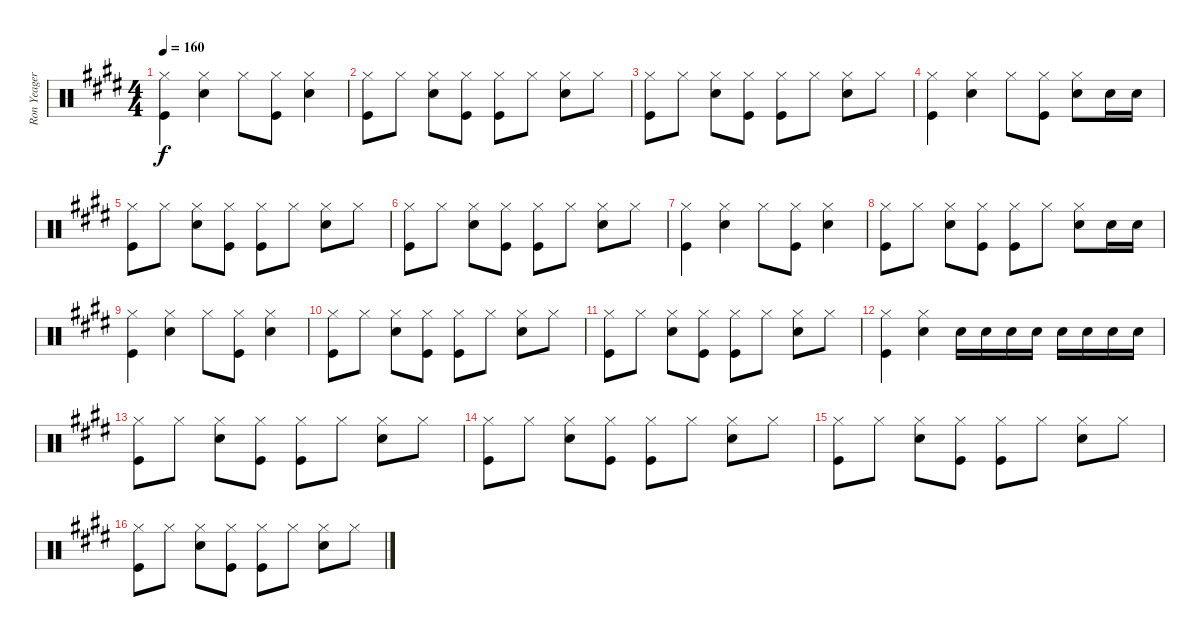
\track ("Ron Yeager Drums" "Ron Yeager") {instrument percussion}
\staff {score}
\articulation defaults
\ts (4 4)
\tempo 160
\clef neutral
\ks e
("Hi-Hat (closed)" "Kick (hit)").4{dy f} ("Hi-Hat (closed)" "Snare (hit) 2").4 "Hi-Hat (closed)".8 ("Hi-Hat (closed)" "Kick (hit)").8 ("Hi-Hat (closed)" "Snare (hit) 2").4 |
("Hi-Hat (closed)" "Kick (hit)").8 "Hi-Hat (closed)".8 ("Hi-Hat (closed)" "Snare (hit) 2").8 ("Hi-Hat (closed)" "Kick (hit)").8 ("Hi-Hat (closed)" "Kick (hit)").8 "Hi-Hat (closed)".8 ("Hi-Hat (closed)" "Snare (hit) 2").8 "Hi-Hat (closed)".8 |
("Hi-Hat (closed)" "Kick (hit)").8 "Hi-Hat (closed)".8 ("Hi-Hat (closed)" "Snare (hit) 2").8 ("Hi-Hat (closed)" "Kick (hit)").8 ("Hi-Hat (closed)" "Kick (hit)").8 "Hi-Hat (closed)".8 ("Hi-Hat (closed)" "Snare (hit) 2").8 "Hi-Hat (closed)".8 |
("Hi-Hat (closed)" "Kick (hit)").4 ("Hi-Hat (closed)" "Snare (hit) 2").4 "Hi-Hat (closed)".8 ("Hi-Hat (closed)" "Kick (hit)").8 ("Hi-Hat (closed)" "Snare (hit) 2").8 "Snare (hit) 2".16 "Snare (hit) 2".16 |
("Hi-Hat (closed)" "Kick (hit)").8 "Hi-Hat (closed)".8 ("Hi-Hat (closed)" "Snare (hit) 2").8 ("Hi-Hat (closed)" "Kick (hit)").8 ("Hi-Hat (closed)" "Kick (hit)").8 "Hi-Hat (closed)".8 ("Hi-Hat (closed)" "Snare (hit) 2").8 "Hi-Hat (closed)".8 |
("Hi-Hat (closed)" "Kick (hit)").8 "Hi-Hat (closed)".8 ("Hi-Hat (closed)" "Snare (hit) 2").8 ("Hi-Hat (closed)" "Kick (hit)").8 ("Hi-Hat (closed)" "Kick (hit)").8 "Hi-Hat (closed)".8 ("Hi-Hat (closed)" "Snare (hit) 2").8 "Hi-Hat (closed)".8 |
("Hi-Hat (closed)" "Kick (hit)").4 ("Hi-Hat (closed)" "Snare (hit) 2").4 "Hi-Hat (closed)".8 ("Hi-Hat (closed)" "Kick (hit)").8 ("Hi-Hat (closed)" "Snare (hit) 2").4 |
("Hi-Hat (closed)" "Kick (hit)").8 "Hi-Hat (closed)".8 ("Hi-Hat (closed)" "Snare (hit) 2").8 ("Hi-Hat (closed)" "Kick (hit)").8 ("Hi-Hat (closed)" "Kick (hit)").8 "Hi-Hat (closed)".8 ("Hi-Hat (closed)" "Snare (hit) 2").8 "Snare (hit) 2".16 "Snare (hit) 2".16 |
("Hi-Hat (closed)" "Kick (hit)").4 ("Hi-Hat (closed)" "Snare (hit) 2").4 "Hi-Hat (closed)".8 ("Hi-Hat (closed)" "Kick (hit)").8 ("Hi-Hat (closed)" "Snare (hit) 2").4 |
("Hi-Hat (closed)" "Kick (hit)").8 "Hi-Hat (closed)".8 ("Hi-Hat (closed)" "Snare (hit) 2").8 ("Hi-Hat (closed)" "Kick (hit)").8 ("Hi-Hat (closed)" "Kick (hit)").8 "Hi-Hat (closed)".8 ("Hi-Hat (closed)" "Snare (hit) 2").8 "Hi-Hat (closed)".8 |
("Hi-Hat (closed)" "Kick (hit)").8 "Hi-Hat (closed)".8 ("Hi-Hat (closed)" "Snare (hit) 2").8 ("Hi-Hat (closed)" "Kick (hit)").8 ("Hi-Hat (closed)" "Kick (hit)").8 "Hi-Hat (closed)".8 ("Hi-Hat (closed)" "Snare (hit) 2").8 "Hi-Hat (closed)".8 |
("Hi-Hat (closed)" "Kick (hit)").4 ("Hi-Hat (closed)" "Snare (hit) 2").4 "Snare (hit) 2".16 "Snare (hit) 2".16 "Snare (hit) 2".16 "Snare (hit) 2".16 "Snare (hit) 2".16 "Snare (hit) 2".16 "Snare (hit) 2".16 "Snare (hit) 2".16 |
("Hi-Hat (closed)" "Kick (hit)").8 "Hi-Hat (closed)".8 ("Hi-Hat (closed)" "Snare (hit) 2").8 ("Hi-Hat (closed)" "Kick (hit)").8 ("Hi-Hat (closed)" "Kick (hit)").8 "Hi-Hat (closed)".8 ("Hi-Hat (closed)" "Snare (hit) 2").8 "Hi-Hat (closed)".8 |
("Hi-Hat (closed)" "Kick (hit)").8 "Hi-Hat (closed)".8 ("Hi-Hat (closed)" "Snare (hit) 2").8 ("Hi-Hat (closed)" "Kick (hit)").8 ("Hi-Hat (closed)" "Kick (hit)").8 "Hi-Hat (closed)".8 ("Hi-Hat (closed)" "Snare (hit) 2").8 "Hi-Hat (closed)".8 |
("Hi-Hat (closed)" "Kick (hit)").8 "Hi-Hat (closed)".8 ("Hi-Hat (closed)" "Snare (hit) 2").8 ("Hi-Hat (closed)" "Kick (hit)").8 ("Hi-Hat (closed)" "Kick (hit)").8 "Hi-Hat (closed)".8 ("Hi-Hat (closed)" "Snare (hit) 2").8 "Hi-Hat (closed)".8 |
("Hi-Hat (closed)" "Kick (hit)").8 "Hi-Hat (closed)".8 ("Hi-Hat (closed)" "Snare (hit) 2").8 ("Hi-Hat (closed)" "Kick (hit)").8 ("Hi-Hat (closed)" "Kick (hit)").8 "Hi-Hat (closed)".8 ("Hi-Hat (closed)" "Snare (hit) 2").8 "Hi-Hat (closed)".8
